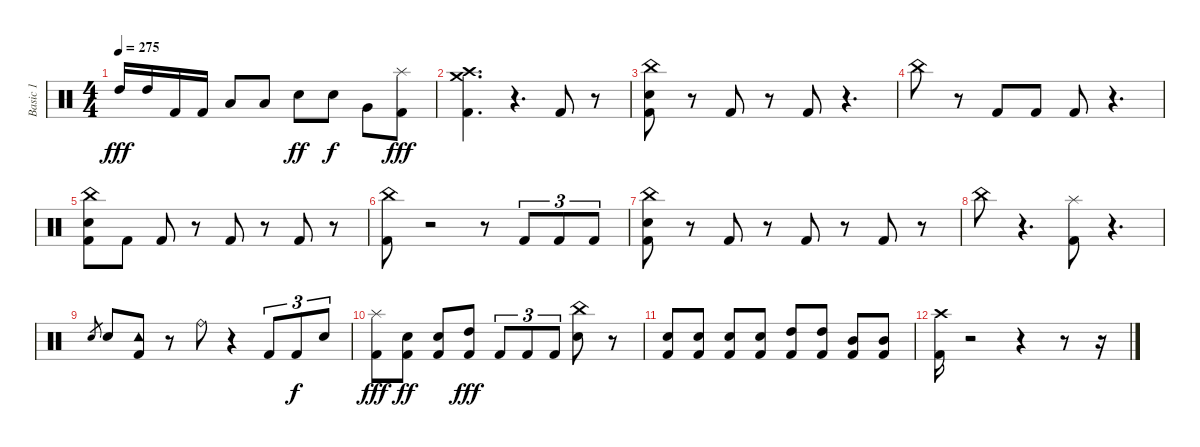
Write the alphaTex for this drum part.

\track ("Basic 1" "Basic 1") {instrument percussion}
\staff {score}
\articulation defaults
\ts (4 4)
\tempo 275
\clef neutral
\ks c "High Tom (hit)".16{dy fff} "High Tom (hit)".16 "Kick (hit) 2".16 "Kick (hit) 2".16 "Low Tom (hit)".8 "Low Tom (hit)".8 "Snare (hit) 2".8{dy ff} "Snare (hit) 2".8{dy f} "Very Low Tom (hit)".8
("Splash (hit)" "Kick (hit) 2").8{dy fff} |
("Crash high (hit)" "Crash medium (hit)" "Kick (hit) 2").4{d} r.4{d} "Kick (hit) 2".8 r.8 |
("China (hit)" "Kick (hit) 2" "Snare (hit) 2").8 r.8 "Kick (hit) 2".8 r.8 "Kick (hit) 2".8 r.4{d} |
"China (hit)".8 r.8 "Kick (hit) 2".8 "Kick (hit) 2".8 "Kick (hit) 2".8 r.4{d} |
("China (hit)" "Kick (hit) 2" "Snare (hit) 2").8 "Kick (hit) 2".8 "Kick (hit) 2".8 r.8 "Kick (hit) 2".8 r.8 "Kick (hit) 2".8 r.8 |
("Kick (hit) 2" "China (hit)").8 r.2 r.8 "Kick (hit) 2".8{tu (3 2)} "Kick (hit) 2".8{tu (3 2)} "Kick (hit) 2".8{tu (3 2)} |
("Kick (hit) 2" "Snare (hit) 2" "China (hit)").8 r.8 "Kick (hit) 2".8 r.8 "Kick (hit) 2".8 r.8 "Kick (hit) 2".8 r.8 |
"China (hit)".8 r.4{d} ("Splash (hit)" "Kick (hit) 2").8 r.4{d} |
"Snare (hit) 2".8{gr} "Snare (hit) 2".8 ("Tambourine (hit)" "Kick (hit) 2").8 r.8 "Ride (bell)".8 r.4 "Kick (hit) 2".8{tu (3 2)} "Kick (hit) 2".8{tu (3 2) dy f} "Snare (hit) 2".8{tu (3 2)} |
("Kick (hit) 2" "Splash (hit)").8{dy fff} ("Kick (hit) 2" "Snare (hit) 2").8{dy ff} ("Kick (hit) 2" "Snare (hit) 2").8 ("Kick (hit) 2" "High Tom (hit)").8{dy fff} "Kick (hit) 2".8{tu (3 2)} "Kick (hit) 2".8{tu (3 2)} "Kick (hit) 2".8{tu (3 2)} ("China (hit)" "Snare (hit) 2").8 r.8 |
("Kick (hit) 2" "Snare (hit) 2").8 ("Snare (hit) 2" "Kick (hit) 2").8 ("Snare (hit) 2" "Kick (hit) 2").8 ("Kick (hit) 2" "Snare (hit) 2").8 ("Kick (hit) 2" "High Tom (hit)").8 ("High Tom (hit)" "Kick (hit) 2").8 ("Kick (hit) 2" "Mid Tom (hit)").8 ("Kick (hit) 2" "Mid Tom (hit)").8 |
("Crash high (hit)" "Kick (hit) 2").16 r.2 r.4 r.8 r.16
